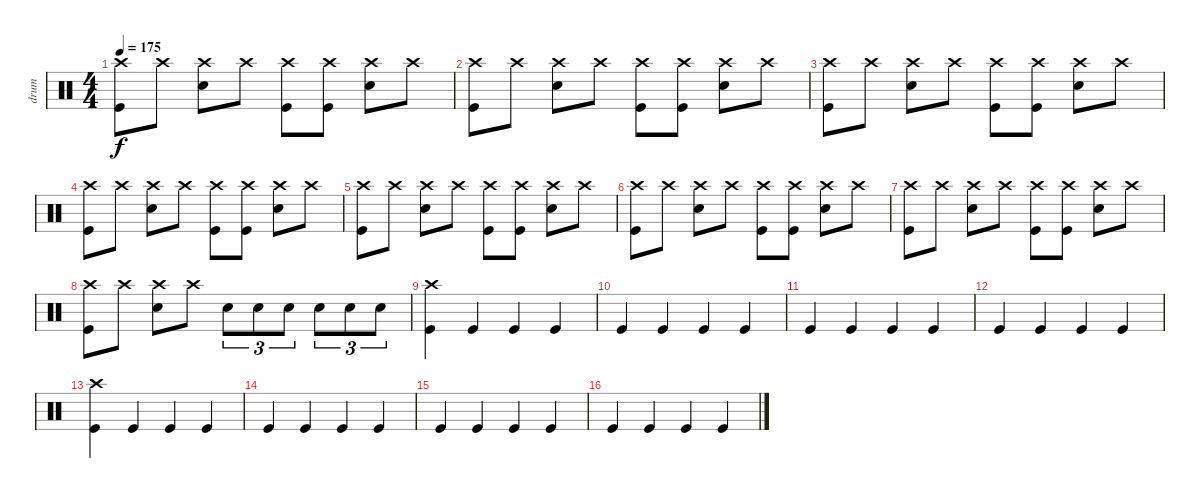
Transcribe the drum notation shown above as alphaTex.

\track ("drum" "drum") {instrument percussion}
\staff {score}
\articulation defaults
\ts (4 4)
\tempo 175
\clef neutral
\ks c
("Crash high (hit)" "Kick (hit)").8{dy f} "Crash high (hit)".8 ("Crash high (hit)" "Snare (hit) 2").8 "Crash high (hit)".8 ("Crash high (hit)" "Kick (hit)").8 ("Crash high (hit)" "Kick (hit)").8 ("Crash high (hit)" "Snare (hit) 2").8 "Crash high (hit)".8 |
("Crash high (hit)" "Kick (hit)").8 "Crash high (hit)".8 ("Crash high (hit)" "Snare (hit) 2").8 "Crash high (hit)".8 ("Crash high (hit)" "Kick (hit)").8 ("Crash high (hit)" "Kick (hit)").8 ("Crash high (hit)" "Snare (hit) 2").8 "Crash high (hit)".8 |
("Crash high (hit)" "Kick (hit)").8 "Crash high (hit)".8 ("Crash high (hit)" "Snare (hit) 2").8 "Crash high (hit)".8 ("Crash high (hit)" "Kick (hit)").8 ("Crash high (hit)" "Kick (hit)").8 ("Crash high (hit)" "Snare (hit) 2").8 "Crash high (hit)".8 |
("Crash high (hit)" "Kick (hit)").8 "Crash high (hit)".8 ("Crash high (hit)" "Snare (hit) 2").8 "Crash high (hit)".8 ("Crash high (hit)" "Kick (hit)").8 ("Crash high (hit)" "Kick (hit)").8 ("Crash high (hit)" "Snare (hit) 2").8 "Crash high (hit)".8 |
("Crash high (hit)" "Kick (hit)").8 "Crash high (hit)".8 ("Crash high (hit)" "Snare (hit) 2").8 "Crash high (hit)".8 ("Crash high (hit)" "Kick (hit)").8 ("Crash high (hit)" "Kick (hit)").8 ("Crash high (hit)" "Snare (hit) 2").8 "Crash high (hit)".8 |
("Crash high (hit)" "Kick (hit)").8 "Crash high (hit)".8 ("Crash high (hit)" "Snare (hit) 2").8 "Crash high (hit)".8 ("Crash high (hit)" "Kick (hit)").8 ("Crash high (hit)" "Kick (hit)").8 ("Crash high (hit)" "Snare (hit) 2").8 "Crash high (hit)".8 |
("Crash high (hit)" "Kick (hit)").8 "Crash high (hit)".8 ("Crash high (hit)" "Snare (hit) 2").8 "Crash high (hit)".8 ("Crash high (hit)" "Kick (hit)").8 ("Crash high (hit)" "Kick (hit)").8 ("Crash high (hit)" "Snare (hit) 2").8 "Crash high (hit)".8 |
("Crash high (hit)" "Kick (hit)").8 "Crash high (hit)".8 ("Crash high (hit)" "Snare (hit) 2").8 "Crash high (hit)".8 "Snare (hit) 2".8{tu (3 2)} "Snare (hit) 2".8{tu (3 2)} "Snare (hit) 2".8{tu (3 2)} "Snare (hit) 2".8{tu (3 2)} "Snare (hit) 2".8{tu (3 2)} "Snare (hit) 2".8{tu (3 2)} |
("Crash high (hit)" "Kick (hit)").4 "Kick (hit)".4 "Kick (hit)".4 "Kick (hit)".4 |
"Kick (hit)".4 "Kick (hit)".4 "Kick (hit)".4 "Kick (hit)".4 |
"Kick (hit)".4 "Kick (hit)".4 "Kick (hit)".4 "Kick (hit)".4 |
"Kick (hit)".4 "Kick (hit)".4 "Kick (hit)".4 "Kick (hit)".4 |
("Crash high (hit)" "Kick (hit)").4 "Kick (hit)".4 "Kick (hit)".4 "Kick (hit)".4 |
"Kick (hit)".4 "Kick (hit)".4 "Kick (hit)".4 "Kick (hit)".4 |
"Kick (hit)".4 "Kick (hit)".4 "Kick (hit)".4 "Kick (hit)".4 |
"Kick (hit)".4 "Kick (hit)".4 "Kick (hit)".4 "Kick (hit)".4
